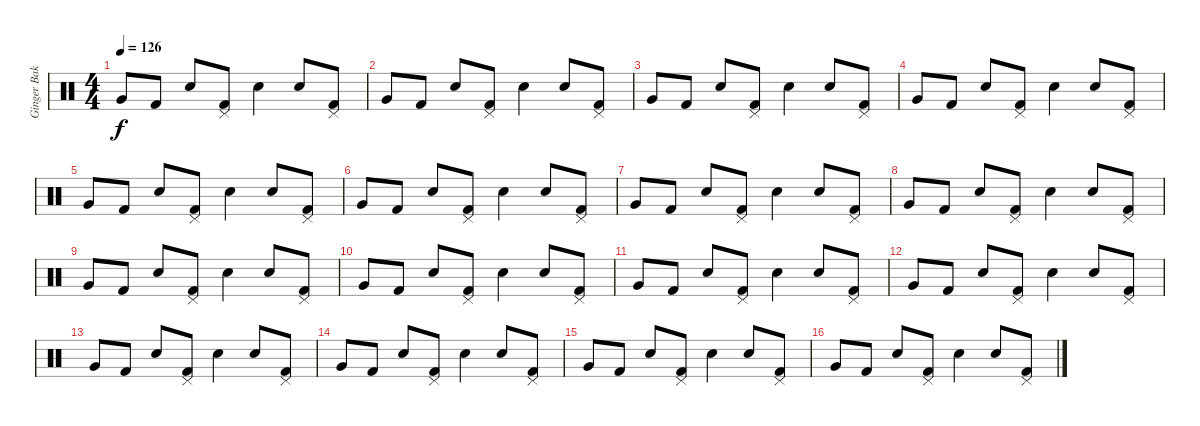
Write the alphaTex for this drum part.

\track ("Ginger Baker" "Ginger Bak") {instrument percussion}
\staff {score}
\articulation defaults
\ts (4 4)
\tempo 126
\clef neutral
\ks c "Very Low Tom (hit)".8{dy f} "Kick (hit) 2".8 "Snare (hit) 2".8
("Pedal Hi-Hat (hit)" "Kick (hit) 2").8 "Snare (hit) 2".4 "Snare (hit) 2".8 ("Pedal Hi-Hat (hit)" "Kick (hit) 2").8 |
"Very Low Tom (hit)".8 "Kick (hit) 2".8 "Snare (hit) 2".8 ("Pedal Hi-Hat (hit)" "Kick (hit) 2").8 "Snare (hit) 2".4 "Snare (hit) 2".8 ("Pedal Hi-Hat (hit)" "Kick (hit) 2").8 |
"Very Low Tom (hit)".8 "Kick (hit) 2".8 "Snare (hit) 2".8 ("Pedal Hi-Hat (hit)" "Kick (hit) 2").8 "Snare (hit) 2".4 "Snare (hit) 2".8 ("Pedal Hi-Hat (hit)" "Kick (hit) 2").8 |
"Very Low Tom (hit)".8 "Kick (hit) 2".8 "Snare (hit) 2".8 ("Pedal Hi-Hat (hit)" "Kick (hit) 2").8 "Snare (hit) 2".4 "Snare (hit) 2".8 ("Pedal Hi-Hat (hit)" "Kick (hit) 2").8 |
"Very Low Tom (hit)".8 "Kick (hit) 2".8 "Snare (hit) 2".8 ("Pedal Hi-Hat (hit)" "Kick (hit) 2").8 "Snare (hit) 2".4 "Snare (hit) 2".8 ("Pedal Hi-Hat (hit)" "Kick (hit) 2").8 |
"Very Low Tom (hit)".8 "Kick (hit) 2".8 "Snare (hit) 2".8 ("Pedal Hi-Hat (hit)" "Kick (hit) 2").8 "Snare (hit) 2".4 "Snare (hit) 2".8 ("Pedal Hi-Hat (hit)" "Kick (hit) 2").8 |
"Very Low Tom (hit)".8 "Kick (hit) 2".8 "Snare (hit) 2".8 ("Pedal Hi-Hat (hit)" "Kick (hit) 2").8 "Snare (hit) 2".4 "Snare (hit) 2".8 ("Pedal Hi-Hat (hit)" "Kick (hit) 2").8 |
"Very Low Tom (hit)".8 "Kick (hit) 2".8 "Snare (hit) 2".8 ("Pedal Hi-Hat (hit)" "Kick (hit) 2").8 "Snare (hit) 2".4 "Snare (hit) 2".8 ("Pedal Hi-Hat (hit)" "Kick (hit) 2").8 |
"Very Low Tom (hit)".8 "Kick (hit) 2".8 "Snare (hit) 2".8 ("Pedal Hi-Hat (hit)" "Kick (hit) 2").8 "Snare (hit) 2".4 "Snare (hit) 2".8 ("Pedal Hi-Hat (hit)" "Kick (hit) 2").8 |
"Very Low Tom (hit)".8 "Kick (hit) 2".8 "Snare (hit) 2".8 ("Pedal Hi-Hat (hit)" "Kick (hit) 2").8 "Snare (hit) 2".4 "Snare (hit) 2".8 ("Pedal Hi-Hat (hit)" "Kick (hit) 2").8 |
"Very Low Tom (hit)".8 "Kick (hit) 2".8 "Snare (hit) 2".8 ("Pedal Hi-Hat (hit)" "Kick (hit) 2").8 "Snare (hit) 2".4 "Snare (hit) 2".8 ("Pedal Hi-Hat (hit)" "Kick (hit) 2").8 |
"Very Low Tom (hit)".8 "Kick (hit) 2".8 "Snare (hit) 2".8 ("Pedal Hi-Hat (hit)" "Kick (hit) 2").8 "Snare (hit) 2".4 "Snare (hit) 2".8 ("Pedal Hi-Hat (hit)" "Kick (hit) 2").8 |
"Very Low Tom (hit)".8 "Kick (hit) 2".8 "Snare (hit) 2".8 ("Pedal Hi-Hat (hit)" "Kick (hit) 2").8 "Snare (hit) 2".4 "Snare (hit) 2".8 ("Pedal Hi-Hat (hit)" "Kick (hit) 2").8 |
"Very Low Tom (hit)".8 "Kick (hit) 2".8 "Snare (hit) 2".8 ("Pedal Hi-Hat (hit)" "Kick (hit) 2").8 "Snare (hit) 2".4 "Snare (hit) 2".8 ("Pedal Hi-Hat (hit)" "Kick (hit) 2").8 |
"Very Low Tom (hit)".8 "Kick (hit) 2".8 "Snare (hit) 2".8 ("Pedal Hi-Hat (hit)" "Kick (hit) 2").8 "Snare (hit) 2".4 "Snare (hit) 2".8 ("Pedal Hi-Hat (hit)" "Kick (hit) 2").8 |
"Very Low Tom (hit)".8 "Kick (hit) 2".8 "Snare (hit) 2".8 ("Pedal Hi-Hat (hit)" "Kick (hit) 2").8 "Snare (hit) 2".4 "Snare (hit) 2".8 ("Pedal Hi-Hat (hit)" "Kick (hit) 2").8
